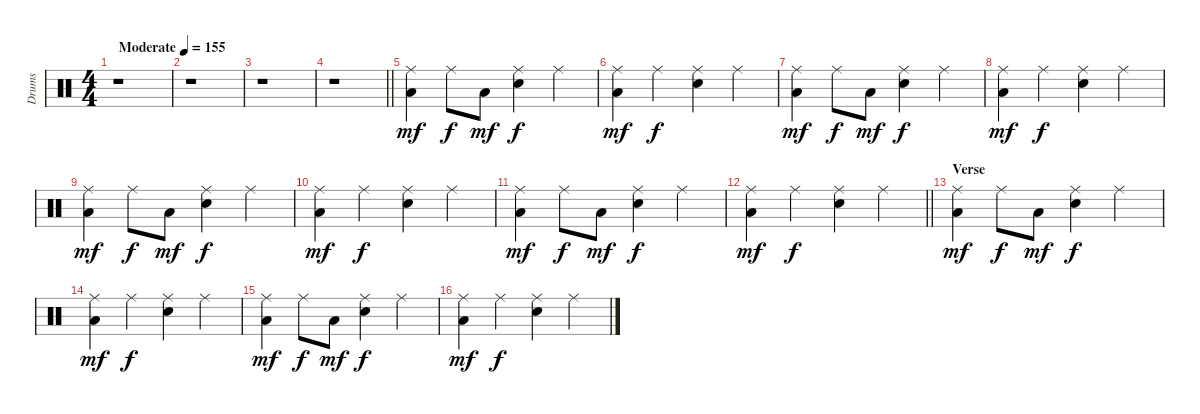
\track ("Drums" "Drums") {instrument percussion}
\staff {score}
\articulation defaults
\ts (4 4)
\tempo (155 "Moderate")
\clef neutral
\ks c
r.1{dy mf} |
r.1 |
r.1 |
\barLineRight lightlight
r.1 |
("Ride (middle)" "Low Floor Tom (hit)").4 "Ride (middle)".8{dy f} "Low Floor Tom (hit)".8{dy mf} ("Ride (middle)" "Electric Snare (hit)").4{dy f} "Ride (middle)".4 |
("Ride (middle)" "Low Floor Tom (hit)").4{dy mf} "Ride (middle)".4{dy f} ("Ride (middle)" "Electric Snare (hit)").4 "Ride (middle)".4 |
("Ride (middle)" "Low Floor Tom (hit)").4{dy mf} "Ride (middle)".8{dy f} "Low Floor Tom (hit)".8{dy mf} ("Ride (middle)" "Electric Snare (hit)").4{dy f} "Ride (middle)".4 |
("Ride (middle)" "Low Floor Tom (hit)").4{dy mf} "Ride (middle)".4{dy f} ("Ride (middle)" "Electric Snare (hit)").4 "Ride (middle)".4 |
("Ride (middle)" "Low Floor Tom (hit)").4{dy mf} "Ride (middle)".8{dy f} "Low Floor Tom (hit)".8{dy mf} ("Ride (middle)" "Electric Snare (hit)").4{dy f} "Ride (middle)".4 |
("Ride (middle)" "Low Floor Tom (hit)").4{dy mf} "Ride (middle)".4{dy f} ("Ride (middle)" "Electric Snare (hit)").4 "Ride (middle)".4 |
("Ride (middle)" "Low Floor Tom (hit)").4{dy mf} "Ride (middle)".8{dy f} "Low Floor Tom (hit)".8{dy mf} ("Ride (middle)" "Electric Snare (hit)").4{dy f} "Ride (middle)".4 |
\barLineRight lightlight
("Ride (middle)" "Low Floor Tom (hit)").4{dy mf} "Ride (middle)".4{dy f} ("Ride (middle)" "Electric Snare (hit)").4 "Ride (middle)".4 |
\section ("" "Verse")
("Ride (middle)" "Low Floor Tom (hit)").4{dy mf} "Ride (middle)".8{dy f} "Low Floor Tom (hit)".8{dy mf} ("Ride (middle)" "Electric Snare (hit)").4{dy f} "Ride (middle)".4 |
("Ride (middle)" "Low Floor Tom (hit)").4{dy mf} "Ride (middle)".4{dy f} ("Ride (middle)" "Electric Snare (hit)").4 "Ride (middle)".4 |
("Ride (middle)" "Low Floor Tom (hit)").4{dy mf} "Ride (middle)".8{dy f} "Low Floor Tom (hit)".8{dy mf} ("Ride (middle)" "Electric Snare (hit)").4{dy f} "Ride (middle)".4 |
("Ride (middle)" "Low Floor Tom (hit)").4{dy mf} "Ride (middle)".4{dy f} ("Ride (middle)" "Electric Snare (hit)").4 "Ride (middle)".4
